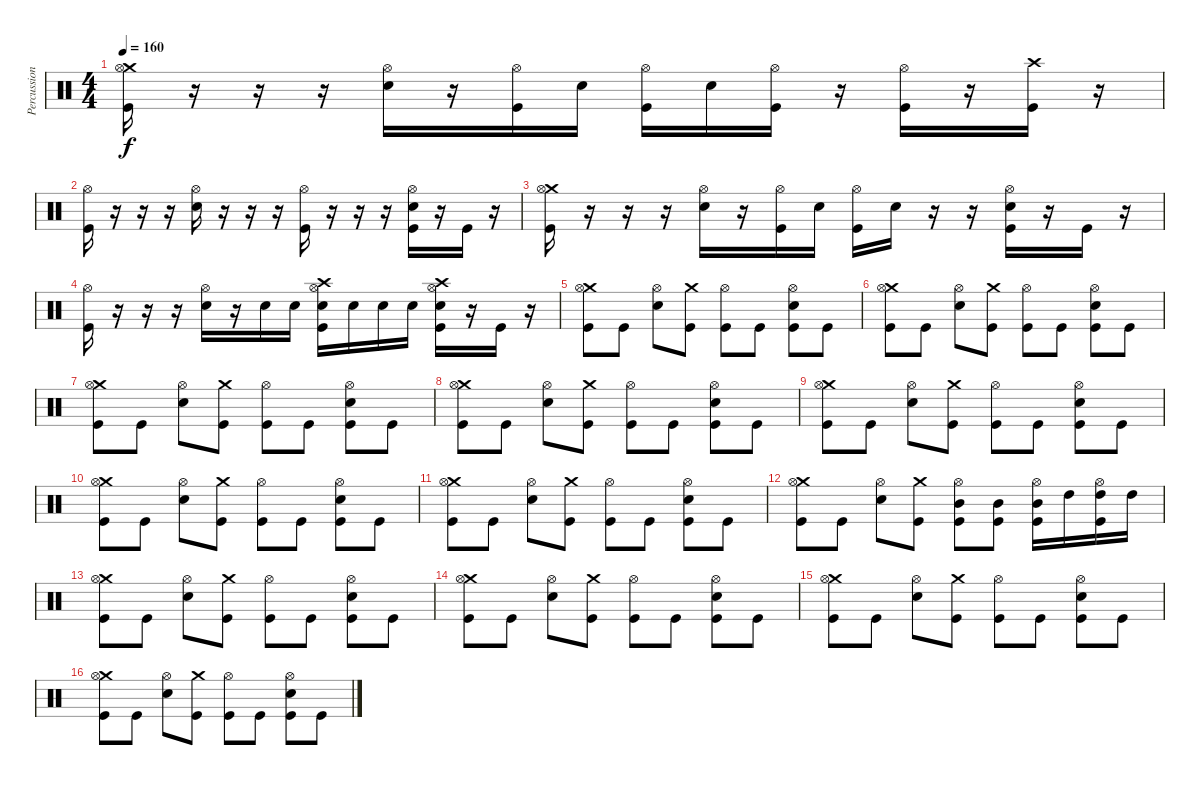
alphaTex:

\track ("Percussion" "Percussion") {instrument percussion}
\staff {score}
\articulation defaults
\ts (4 4)
\tempo 160
\clef neutral
\ks c
("Crash medium (hit)" "Hi-Hat (open)" "Kick (hit)").16{dy f} r.16 r.16 r.16 ("Snare (hit) 2" "Hi-Hat (open)").16 r.16 ("Hi-Hat (open)" "Kick (hit)").16 "Snare (hit) 2".16 ("Hi-Hat (open)" "Kick (hit)").16 "Snare (hit) 2".16 ("Hi-Hat (open)" "Kick (hit)").16 r.16 ("Hi-Hat (open)" "Kick (hit)").16 r.16 ("Crash high (hit)" "Kick (hit)").16 r.16 |
("Hi-Hat (open)" "Kick (hit)").16 r.16 r.16 r.16 ("Snare (hit) 2" "Hi-Hat (open)").16 r.16 r.16 r.16 ("Hi-Hat (open)" "Kick (hit)").16 r.16 r.16 r.16 ("Snare (hit) 2" "Hi-Hat (open)" "Kick (hit)").16 r.16 "Kick (hit)".16 r.16 |
("Crash medium (hit)" "Hi-Hat (open)" "Kick (hit)").16 r.16 r.16 r.16 ("Snare (hit) 2" "Hi-Hat (open)").16 r.16 ("Hi-Hat (open)" "Kick (hit)").16 "Snare (hit) 2".16 ("Hi-Hat (open)" "Kick (hit)").16 "Snare (hit) 2".16 r.16 r.16 ("Snare (hit) 2" "Hi-Hat (open)" "Kick (hit)").16 r.16 "Kick (hit)".16 r.16 |
("Hi-Hat (open)" "Kick (hit)").16 r.16 r.16 r.16 ("Snare (hit) 2" "Hi-Hat (open)").16 r.16 "Snare (hit) 2".16 "Snare (hit) 2".16 ("Crash high (hit)" "Snare (hit) 2" "Hi-Hat (open)" "Kick (hit)").16 "Snare (hit) 2".16 "Snare (hit) 2".16 "Snare (hit) 2".16 ("Crash high (hit)" "Snare (hit) 2" "Hi-Hat (open)" "Kick (hit)").16 r.16 "Kick (hit)".16 r.16 |
("Crash medium (hit)" "Hi-Hat (open)" "Kick (hit)").8 "Kick (hit)".8 ("Snare (hit) 2" "Hi-Hat (open)").8 ("Crash medium (hit)" "Kick (hit)").8 ("Hi-Hat (open)" "Kick (hit)").8 "Kick (hit)".8 ("Snare (hit) 2" "Hi-Hat (open)" "Kick (hit)").8 "Kick (hit)".8 |
("Crash medium (hit)" "Hi-Hat (open)" "Kick (hit)").8 "Kick (hit)".8 ("Snare (hit) 2" "Hi-Hat (open)").8 ("Crash medium (hit)" "Kick (hit)").8 ("Hi-Hat (open)" "Kick (hit)").8 "Kick (hit)".8 ("Snare (hit) 2" "Hi-Hat (open)" "Kick (hit)").8 "Kick (hit)".8 |
("Crash medium (hit)" "Hi-Hat (open)" "Kick (hit)").8 "Kick (hit)".8 ("Snare (hit) 2" "Hi-Hat (open)").8 ("Crash medium (hit)" "Kick (hit)").8 ("Hi-Hat (open)" "Kick (hit)").8 "Kick (hit)".8 ("Snare (hit) 2" "Hi-Hat (open)" "Kick (hit)").8 "Kick (hit)".8 |
("Crash medium (hit)" "Hi-Hat (open)" "Kick (hit)").8 "Kick (hit)".8 ("Snare (hit) 2" "Hi-Hat (open)").8 ("Crash medium (hit)" "Kick (hit)").8 ("Hi-Hat (open)" "Kick (hit)").8 "Kick (hit)".8 ("Snare (hit) 2" "Hi-Hat (open)" "Kick (hit)").8 "Kick (hit)".8 |
("Crash medium (hit)" "Hi-Hat (open)" "Kick (hit)").8 "Kick (hit)".8 ("Snare (hit) 2" "Hi-Hat (open)").8 ("Crash medium (hit)" "Kick (hit)").8 ("Hi-Hat (open)" "Kick (hit)").8 "Kick (hit)".8 ("Snare (hit) 2" "Hi-Hat (open)" "Kick (hit)").8 "Kick (hit)".8 |
("Crash medium (hit)" "Hi-Hat (open)" "Kick (hit)").8 "Kick (hit)".8 ("Snare (hit) 2" "Hi-Hat (open)").8 ("Crash medium (hit)" "Kick (hit)").8 ("Hi-Hat (open)" "Kick (hit)").8 "Kick (hit)".8 ("Snare (hit) 2" "Hi-Hat (open)" "Kick (hit)").8 "Kick (hit)".8 |
("Crash medium (hit)" "Hi-Hat (open)" "Kick (hit)").8 "Kick (hit)".8 ("Snare (hit) 2" "Hi-Hat (open)").8 ("Crash medium (hit)" "Kick (hit)").8 ("Hi-Hat (open)" "Kick (hit)").8 "Kick (hit)".8 ("Snare (hit) 2" "Hi-Hat (open)" "Kick (hit)").8 "Kick (hit)".8 |
("Crash medium (hit)" "Hi-Hat (open)" "Kick (hit)").8 "Kick (hit)".8 ("Snare (hit) 2" "Hi-Hat (open)").8 ("Crash medium (hit)" "Kick (hit)").8 ("Mid Tom (hit)" "Hi-Hat (open)" "Kick (hit)").8 ("Mid Tom (hit)" "Kick (hit)").8 ("Mid Tom (hit)" "Hi-Hat (open)" "Kick (hit)").16 "High Tom (hit)".16 ("High Tom (hit)" "Hi-Hat (open)" "Kick (hit)").16 "High Tom (hit)".16 |
("Crash medium (hit)" "Hi-Hat (open)" "Kick (hit)").8 "Kick (hit)".8 ("Snare (hit) 2" "Hi-Hat (open)").8 ("Crash medium (hit)" "Kick (hit)").8 ("Hi-Hat (open)" "Kick (hit)").8 "Kick (hit)".8 ("Snare (hit) 2" "Hi-Hat (open)" "Kick (hit)").8 "Kick (hit)".8 |
("Crash medium (hit)" "Hi-Hat (open)" "Kick (hit)").8 "Kick (hit)".8 ("Snare (hit) 2" "Hi-Hat (open)").8 ("Crash medium (hit)" "Kick (hit)").8 ("Hi-Hat (open)" "Kick (hit)").8 "Kick (hit)".8 ("Snare (hit) 2" "Hi-Hat (open)" "Kick (hit)").8 "Kick (hit)".8 |
("Crash medium (hit)" "Hi-Hat (open)" "Kick (hit)").8 "Kick (hit)".8 ("Snare (hit) 2" "Hi-Hat (open)").8 ("Crash medium (hit)" "Kick (hit)").8 ("Hi-Hat (open)" "Kick (hit)").8 "Kick (hit)".8 ("Snare (hit) 2" "Hi-Hat (open)" "Kick (hit)").8 "Kick (hit)".8 |
("Crash medium (hit)" "Hi-Hat (open)" "Kick (hit)").8 "Kick (hit)".8 ("Snare (hit) 2" "Hi-Hat (open)").8 ("Crash medium (hit)" "Kick (hit)").8 ("Hi-Hat (open)" "Kick (hit)").8 "Kick (hit)".8 ("Snare (hit) 2" "Hi-Hat (open)" "Kick (hit)").8 "Kick (hit)".8
